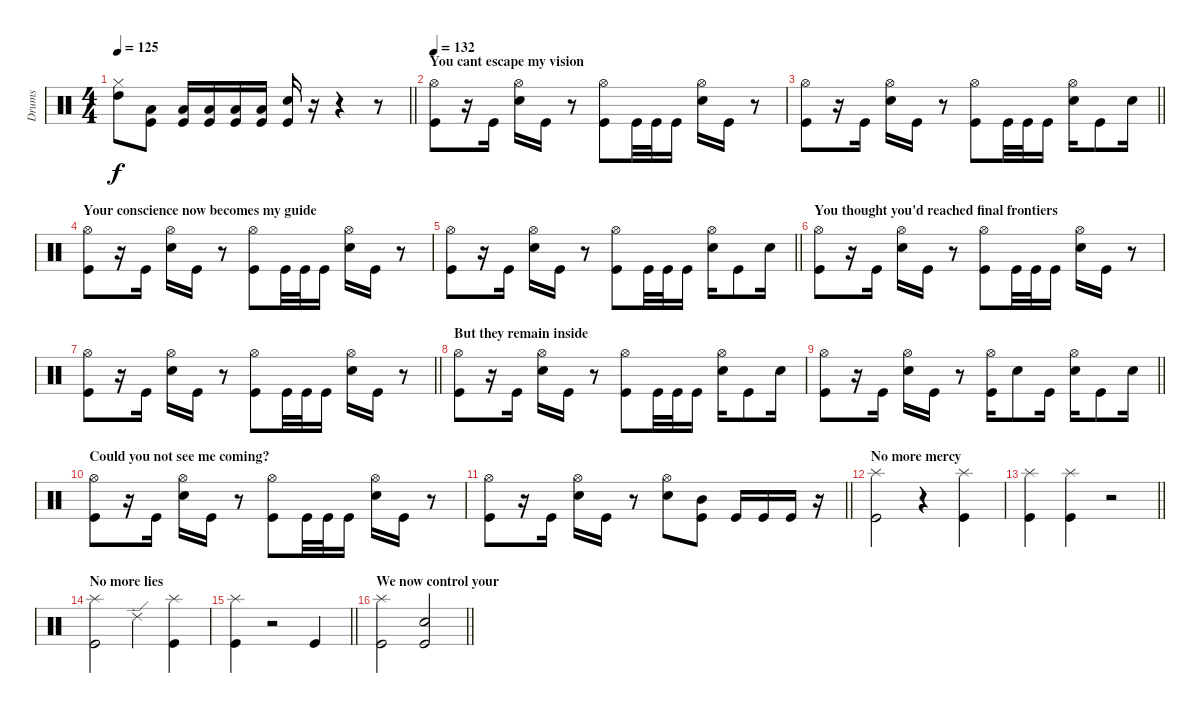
\track ("Drums" "Drums") {instrument percussion}
\staff {score}
\articulation defaults
\ts (4 4)
\tempo 125
\clef neutral
\barLineRight lightlight
\ks c
("Hi-Hat (closed)" "High Tom (hit)").8{dy f} ("Low Tom (hit)" "Kick (hit)").8 ("Low Tom (hit)" "Kick (hit)").16 ("Low Tom (hit)" "Kick (hit)").16 ("Low Tom (hit)" "Kick (hit)").16 ("Low Tom (hit)" "Kick (hit)").16 ("Snare (hit) 2" "Kick (hit)").16 r.16 r.4 r.8 |
\section ("" "You cant escape my vision")
\tempo 132
("Hi-Hat (open)" "Kick (hit)").8 r.16 "Kick (hit)".16 ("Hi-Hat (open)" "Snare (hit) 2").16 "Kick (hit)".16 r.8 ("Hi-Hat (open)" "Kick (hit)").8 "Kick (hit)".32 "Kick (hit)".32 "Kick (hit)".16 ("Hi-Hat (open)" "Snare (hit) 2").16 "Kick (hit)".16 r.8 |
\barLineRight lightlight
("Hi-Hat (open)" "Kick (hit)").8 r.16 "Kick (hit)".16 ("Hi-Hat (open)" "Snare (hit) 2").16 "Kick (hit)".16 r.8 ("Hi-Hat (open)" "Kick (hit)").8 "Kick (hit)".32 "Kick (hit)".32 "Kick (hit)".16 ("Hi-Hat (open)" "Snare (hit) 2").16 "Kick (hit)".8 "Snare (hit) 2".16 |
\section ("" "Your conscience now becomes my guide")
("Hi-Hat (open)" "Kick (hit)").8 r.16 "Kick (hit)".16 ("Hi-Hat (open)" "Snare (hit) 2").16 "Kick (hit)".16 r.8 ("Hi-Hat (open)" "Kick (hit)").8 "Kick (hit)".32 "Kick (hit)".32 "Kick (hit)".16 ("Hi-Hat (open)" "Snare (hit) 2").16 "Kick (hit)".16 r.8 |
\barLineRight lightlight
("Hi-Hat (open)" "Kick (hit)").8 r.16 "Kick (hit)".16 ("Hi-Hat (open)" "Snare (hit) 2").16 "Kick (hit)".16 r.8 ("Hi-Hat (open)" "Kick (hit)").8 "Kick (hit)".32 "Kick (hit)".32 "Kick (hit)".16 ("Hi-Hat (open)" "Snare (hit) 2").16 "Kick (hit)".8 "Snare (hit) 2".16 |
\section ("" "You thought you'd reached final frontiers")
("Hi-Hat (open)" "Kick (hit)").8 r.16 "Kick (hit)".16 ("Hi-Hat (open)" "Snare (hit) 2").16 "Kick (hit)".16 r.8 ("Hi-Hat (open)" "Kick (hit)").8 "Kick (hit)".32 "Kick (hit)".32 "Kick (hit)".16 ("Hi-Hat (open)" "Snare (hit) 2").16 "Kick (hit)".16 r.8 |
\barLineRight lightlight
("Hi-Hat (open)" "Kick (hit)").8 r.16 "Kick (hit)".16 ("Hi-Hat (open)" "Snare (hit) 2").16 "Kick (hit)".16 r.8 ("Hi-Hat (open)" "Kick (hit)").8 "Kick (hit)".32 "Kick (hit)".32 "Kick (hit)".16 ("Hi-Hat (open)" "Snare (hit) 2").16 "Kick (hit)".16 r.8 |
\section ("" "But they remain inside")
("Hi-Hat (open)" "Kick (hit)").8 r.16 "Kick (hit)".16 ("Hi-Hat (open)" "Snare (hit) 2").16 "Kick (hit)".16 r.8 ("Hi-Hat (open)" "Kick (hit)").8 "Kick (hit)".32 "Kick (hit)".32 "Kick (hit)".16 ("Hi-Hat (open)" "Snare (hit) 2").16 "Kick (hit)".8 "Snare (hit) 2".16 |
\barLineRight lightlight
("Hi-Hat (open)" "Kick (hit)").8 r.16 "Kick (hit)".16 ("Hi-Hat (open)" "Snare (hit) 2").16 "Kick (hit)".16 r.8 ("Hi-Hat (open)" "Kick (hit)").16 "Snare (hit) 2".8 "Kick (hit)".16 ("Hi-Hat (open)" "Snare (hit) 2").16 "Kick (hit)".8 "Snare (hit) 2".16 |
\section ("" "Could you not see me coming?")
("Hi-Hat (open)" "Kick (hit)").8 r.16 "Kick (hit)".16 ("Hi-Hat (open)" "Snare (hit) 2").16 "Kick (hit)".16 r.8 ("Hi-Hat (open)" "Kick (hit)").8 "Kick (hit)".32 "Kick (hit)".32 "Kick (hit)".16 ("Hi-Hat (open)" "Snare (hit) 2").16 "Kick (hit)".16 r.8 |
\barLineRight lightlight
("Hi-Hat (open)" "Kick (hit)").8 r.16 "Kick (hit)".16 ("Hi-Hat (open)" "Snare (hit) 2").16 "Kick (hit)".16 r.8 ("Hi-Hat (open)" "Snare (hit) 2").8 ("Mid Tom (hit)" "Kick (hit)").8 "Kick (hit)".16 "Kick (hit)".16 "Kick (hit)".16 r.16 |
\section ("" "No more mercy")
("Splash (hit)" "Kick (hit)").2 r.4 ("Splash (hit)" "Kick (hit)").4 |
\barLineRight lightlight
("Splash (hit)" "Kick (hit)").4 ("Splash (hit)" "Kick (hit)").4 r.2 |
\section ("" "No more lies")
("Splash (hit)" "Kick (hit)").2 "Ride (edge) 2".4 ("Splash (hit)" "Kick (hit)").4 |
\barLineRight lightlight
("Splash (hit)" "Kick (hit)").4 r.2 "Kick (hit)".4 |
\section ("" "We now control your")
\barLineRight lightlight
("Splash (hit)" "Kick (hit)").2 ("Snare (hit) 2" "Kick (hit)").2
